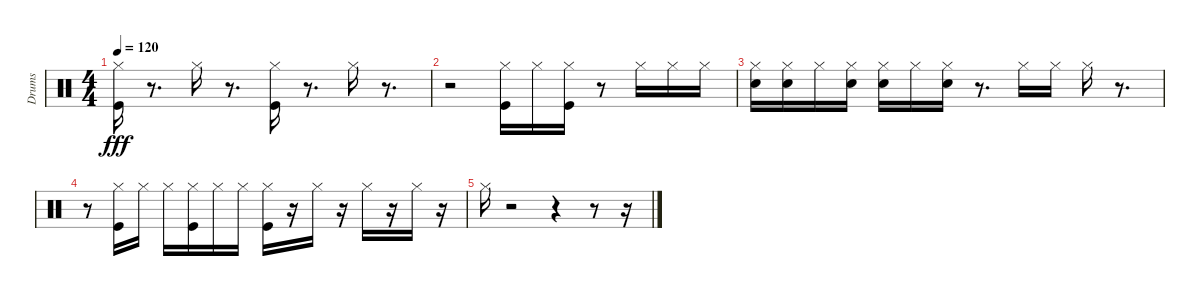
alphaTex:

\track ("Drums" "Drums") {instrument percussion}
\staff {score}
\articulation defaults
\ts (4 4)
\tempo 120
\clef neutral
\ks c
("Kick (hit)" "Hi-Hat (closed)").16{dy fff} r.8{d} "Hi-Hat (closed)".16 r.8{d} ("Kick (hit)" "Hi-Hat (closed)").16 r.8{d} "Hi-Hat (closed)".16 r.8{d} |
r.2 ("Hi-Hat (closed)" "Kick (hit)").16 "Hi-Hat (closed)".16 ("Hi-Hat (closed)" "Kick (hit)").16 r.8 "Hi-Hat (closed)".16 "Hi-Hat (closed)".16 "Hi-Hat (closed)".16 |
("Hi-Hat (closed)" "Snare (hit) 2").16 ("Hi-Hat (closed)" "Snare (hit) 2").16 "Hi-Hat (closed)".16 ("Hi-Hat (closed)" "Snare (hit) 2").16 ("Hi-Hat (closed)" "Snare (hit) 2").16 "Hi-Hat (closed)".16 ("Hi-Hat (closed)" "Snare (hit) 2").16 r.8{d} "Hi-Hat (closed)".16 "Hi-Hat (closed)".16 "Hi-Hat (closed)".16 r.8{d} |
r.8 ("Hi-Hat (closed)" "Kick (hit)").16 "Hi-Hat (closed)".16 "Hi-Hat (closed)".16 ("Hi-Hat (closed)" "Kick (hit)").16 "Hi-Hat (closed)".16 "Hi-Hat (closed)".16 ("Hi-Hat (closed)" "Kick (hit)").16 r.16 "Hi-Hat (closed)".16 r.16 "Hi-Hat (closed)".16 r.16 "Hi-Hat (closed)".16 r.16 |
"Hi-Hat (closed)".16 r.2 r.4 r.8 r.16
